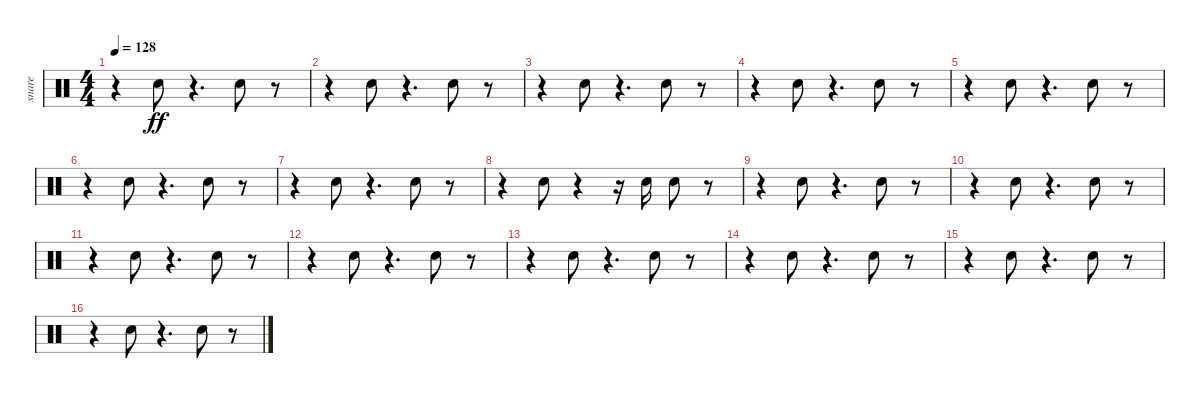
\track ("snare" "snare") {instrument percussion}
\staff {score}
\articulation defaults
\ts (4 4)
\tempo 128
\clef neutral
\ks c
r.4{dy ff} "Electric Snare (hit)".8 r.4{d} "Electric Snare (hit)".8 r.8 |
r.4 "Electric Snare (hit)".8 r.4{d} "Electric Snare (hit)".8 r.8 |
r.4 "Electric Snare (hit)".8 r.4{d} "Electric Snare (hit)".8 r.8 |
r.4 "Electric Snare (hit)".8 r.4{d} "Electric Snare (hit)".8 r.8 |
r.4 "Electric Snare (hit)".8 r.4{d} "Electric Snare (hit)".8 r.8 |
r.4 "Electric Snare (hit)".8 r.4{d} "Electric Snare (hit)".8 r.8 |
r.4 "Electric Snare (hit)".8 r.4{d} "Electric Snare (hit)".8 r.8 |
r.4 "Electric Snare (hit)".8 r.4 r.16 "Electric Snare (hit)".16 "Electric Snare (hit)".8 r.8 |
r.4 "Electric Snare (hit)".8 r.4{d} "Electric Snare (hit)".8 r.8 |
r.4 "Electric Snare (hit)".8 r.4{d} "Electric Snare (hit)".8 r.8 |
r.4 "Electric Snare (hit)".8 r.4{d} "Electric Snare (hit)".8 r.8 |
r.4 "Electric Snare (hit)".8 r.4{d} "Electric Snare (hit)".8 r.8 |
r.4 "Electric Snare (hit)".8 r.4{d} "Electric Snare (hit)".8 r.8 |
r.4 "Electric Snare (hit)".8 r.4{d} "Electric Snare (hit)".8 r.8 |
r.4 "Electric Snare (hit)".8 r.4{d} "Electric Snare (hit)".8 r.8 |
r.4 "Electric Snare (hit)".8 r.4{d} "Electric Snare (hit)".8 r.8
